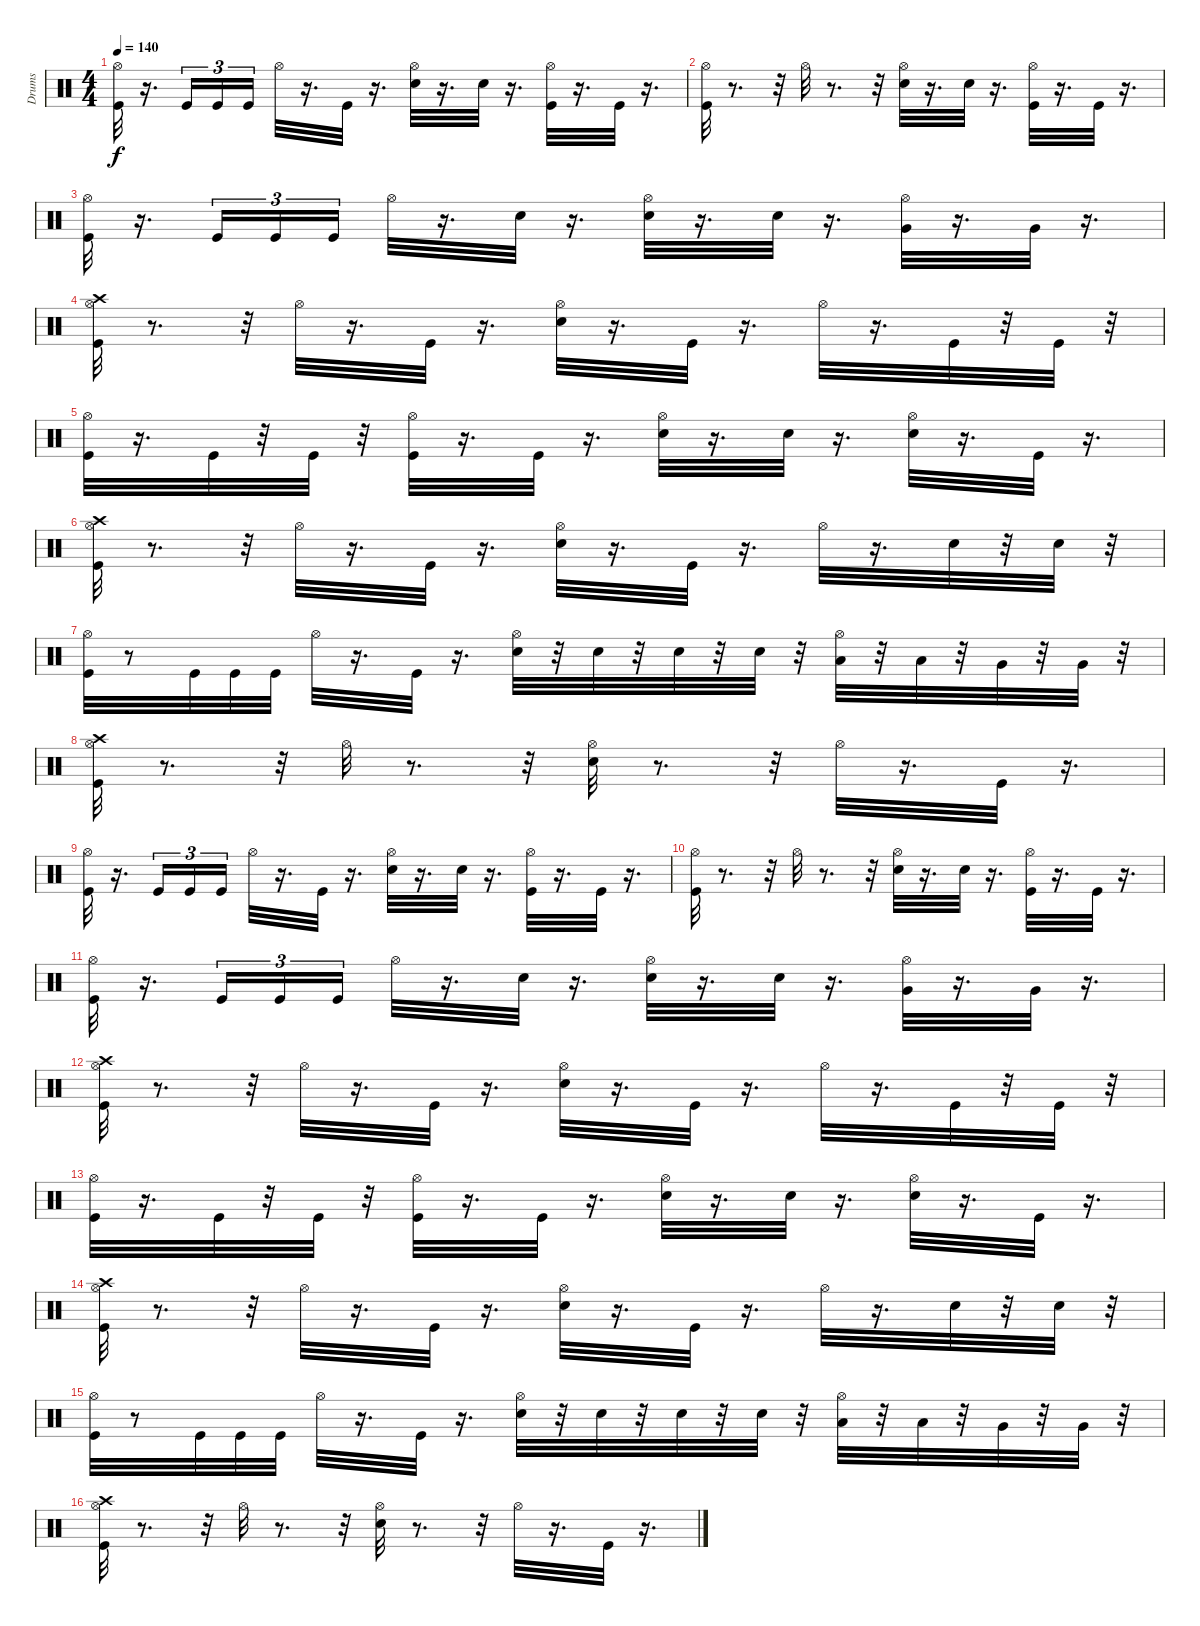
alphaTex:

\track ("Drums" "Drums") {instrument percussion}
\staff {score}
\articulation defaults
\ts (4 4)
\tempo 140
\clef neutral
\ks c
("Hi-Hat (open)" "Kick (hit)").32{dy f} r.16{d} "Kick (hit)".16{tu (3 2)} "Kick (hit)".16{tu (3 2)} "Kick (hit)".16{tu (3 2)} "Hi-Hat (open)".32 r.16{d} "Kick (hit)".32 r.16{d} ("Hi-Hat (open)" "Electric Snare (hit)").32 r.16{d} "Electric Snare (hit)".32 r.16{d} ("Hi-Hat (open)" "Kick (hit)").32 r.16{d} "Kick (hit)".32 r.16{d} |
("Hi-Hat (open)" "Kick (hit)").32 r.8{d} r.32 "Hi-Hat (open)".32 r.8{d} r.32 ("Hi-Hat (open)" "Electric Snare (hit)").32 r.16{d} "Electric Snare (hit)".32 r.16{d} ("Hi-Hat (open)" "Kick (hit)").32 r.16{d} "Kick (hit)".32 r.16{d} |
("Hi-Hat (open)" "Kick (hit)").32 r.16{d} "Kick (hit)".16{tu (3 2)} "Kick (hit)".16{tu (3 2)} "Kick (hit)".16{tu (3 2)} "Hi-Hat (open)".32 r.16{d} "Electric Snare (hit)".32 r.16{d} ("Hi-Hat (open)" "Electric Snare (hit)").32 r.16{d} "Electric Snare (hit)".32 r.16{d} ("Hi-Hat (open)" "Very Low Tom (hit)").32 r.16{d} "Very Low Tom (hit)".32 r.16{d} |
("Hi-Hat (open)" "Crash high (hit)" "Kick (hit)").32 r.8{d} r.32 "Hi-Hat (open)".32 r.16{d} "Kick (hit)".32 r.16{d} ("Hi-Hat (open)" "Electric Snare (hit)").32 r.16{d} "Kick (hit)".32 r.16{d} "Hi-Hat (open)".32 r.16{d} "Kick (hit)".32 r.32 "Kick (hit)".32 r.32 |
("Hi-Hat (open)" "Kick (hit)").32 r.16{d} "Kick (hit)".32 r.32 "Kick (hit)".32 r.32 ("Hi-Hat (open)" "Kick (hit)").32 r.16{d} "Kick (hit)".32 r.16{d} ("Hi-Hat (open)" "Electric Snare (hit)").32 r.16{d} "Electric Snare (hit)".32 r.16{d} ("Hi-Hat (open)" "Electric Snare (hit)").32 r.16{d} "Kick (hit)".32 r.16{d} |
("Hi-Hat (open)" "Crash high (hit)" "Kick (hit)").32 r.8{d} r.32 "Hi-Hat (open)".32 r.16{d} "Kick (hit)".32 r.16{d} ("Hi-Hat (open)" "Electric Snare (hit)").32 r.16{d} "Kick (hit)".32 r.16{d} "Hi-Hat (open)".32 r.16{d} "Electric Snare (hit)".32 r.32 "Electric Snare (hit)".32 r.32 |
("Hi-Hat (open)" "Kick (hit)").32 r.8 "Kick (hit)".32 "Kick (hit)".32 "Kick (hit)".32 "Hi-Hat (open)".32 r.16{d} "Kick (hit)".32 r.16{d} ("Hi-Hat (open)" "Electric Snare (hit)").32 r.32 "Electric Snare (hit)".32 r.32 "Electric Snare (hit)".32 r.32 "Electric Snare (hit)".32 r.32 ("Hi-Hat (open)" "Low Tom (hit)").32 r.32 "Low Tom (hit)".32 r.32 "Very Low Tom (hit)".32 r.32 "Very Low Tom (hit)".32 r.32 |
("Hi-Hat (open)" "Crash high (hit)" "Kick (hit)").32 r.8{d} r.32 "Hi-Hat (open)".32 r.8{d} r.32 ("Hi-Hat (open)" "Electric Snare (hit)").32 r.8{d} r.32 "Hi-Hat (open)".32 r.16{d} "Kick (hit)".32 r.16{d} |
("Hi-Hat (open)" "Kick (hit)").32 r.16{d} "Kick (hit)".16{tu (3 2)} "Kick (hit)".16{tu (3 2)} "Kick (hit)".16{tu (3 2)} "Hi-Hat (open)".32 r.16{d} "Kick (hit)".32 r.16{d} ("Hi-Hat (open)" "Electric Snare (hit)").32 r.16{d} "Electric Snare (hit)".32 r.16{d} ("Hi-Hat (open)" "Kick (hit)").32 r.16{d} "Kick (hit)".32 r.16{d} |
("Hi-Hat (open)" "Kick (hit)").32 r.8{d} r.32 "Hi-Hat (open)".32 r.8{d} r.32 ("Hi-Hat (open)" "Electric Snare (hit)").32 r.16{d} "Electric Snare (hit)".32 r.16{d} ("Hi-Hat (open)" "Kick (hit)").32 r.16{d} "Kick (hit)".32 r.16{d} |
("Hi-Hat (open)" "Kick (hit)").32 r.16{d} "Kick (hit)".16{tu (3 2)} "Kick (hit)".16{tu (3 2)} "Kick (hit)".16{tu (3 2)} "Hi-Hat (open)".32 r.16{d} "Electric Snare (hit)".32 r.16{d} ("Hi-Hat (open)" "Electric Snare (hit)").32 r.16{d} "Electric Snare (hit)".32 r.16{d} ("Hi-Hat (open)" "Very Low Tom (hit)").32 r.16{d} "Very Low Tom (hit)".32 r.16{d} |
("Hi-Hat (open)" "Crash high (hit)" "Kick (hit)").32 r.8{d} r.32 "Hi-Hat (open)".32 r.16{d} "Kick (hit)".32 r.16{d} ("Hi-Hat (open)" "Electric Snare (hit)").32 r.16{d} "Kick (hit)".32 r.16{d} "Hi-Hat (open)".32 r.16{d} "Kick (hit)".32 r.32 "Kick (hit)".32 r.32 |
("Hi-Hat (open)" "Kick (hit)").32 r.16{d} "Kick (hit)".32 r.32 "Kick (hit)".32 r.32 ("Hi-Hat (open)" "Kick (hit)").32 r.16{d} "Kick (hit)".32 r.16{d} ("Hi-Hat (open)" "Electric Snare (hit)").32 r.16{d} "Electric Snare (hit)".32 r.16{d} ("Hi-Hat (open)" "Electric Snare (hit)").32 r.16{d} "Kick (hit)".32 r.16{d} |
("Hi-Hat (open)" "Crash high (hit)" "Kick (hit)").32 r.8{d} r.32 "Hi-Hat (open)".32 r.16{d} "Kick (hit)".32 r.16{d} ("Hi-Hat (open)" "Electric Snare (hit)").32 r.16{d} "Kick (hit)".32 r.16{d} "Hi-Hat (open)".32 r.16{d} "Electric Snare (hit)".32 r.32 "Electric Snare (hit)".32 r.32 |
("Hi-Hat (open)" "Kick (hit)").32 r.8 "Kick (hit)".32 "Kick (hit)".32 "Kick (hit)".32 "Hi-Hat (open)".32 r.16{d} "Kick (hit)".32 r.16{d} ("Hi-Hat (open)" "Electric Snare (hit)").32 r.32 "Electric Snare (hit)".32 r.32 "Electric Snare (hit)".32 r.32 "Electric Snare (hit)".32 r.32 ("Hi-Hat (open)" "Low Tom (hit)").32 r.32 "Low Tom (hit)".32 r.32 "Very Low Tom (hit)".32 r.32 "Very Low Tom (hit)".32 r.32 |
("Hi-Hat (open)" "Crash high (hit)" "Kick (hit)").32 r.8{d} r.32 "Hi-Hat (open)".32 r.8{d} r.32 ("Hi-Hat (open)" "Electric Snare (hit)").32 r.8{d} r.32 "Hi-Hat (open)".32 r.16{d} "Kick (hit)".32 r.16{d}
